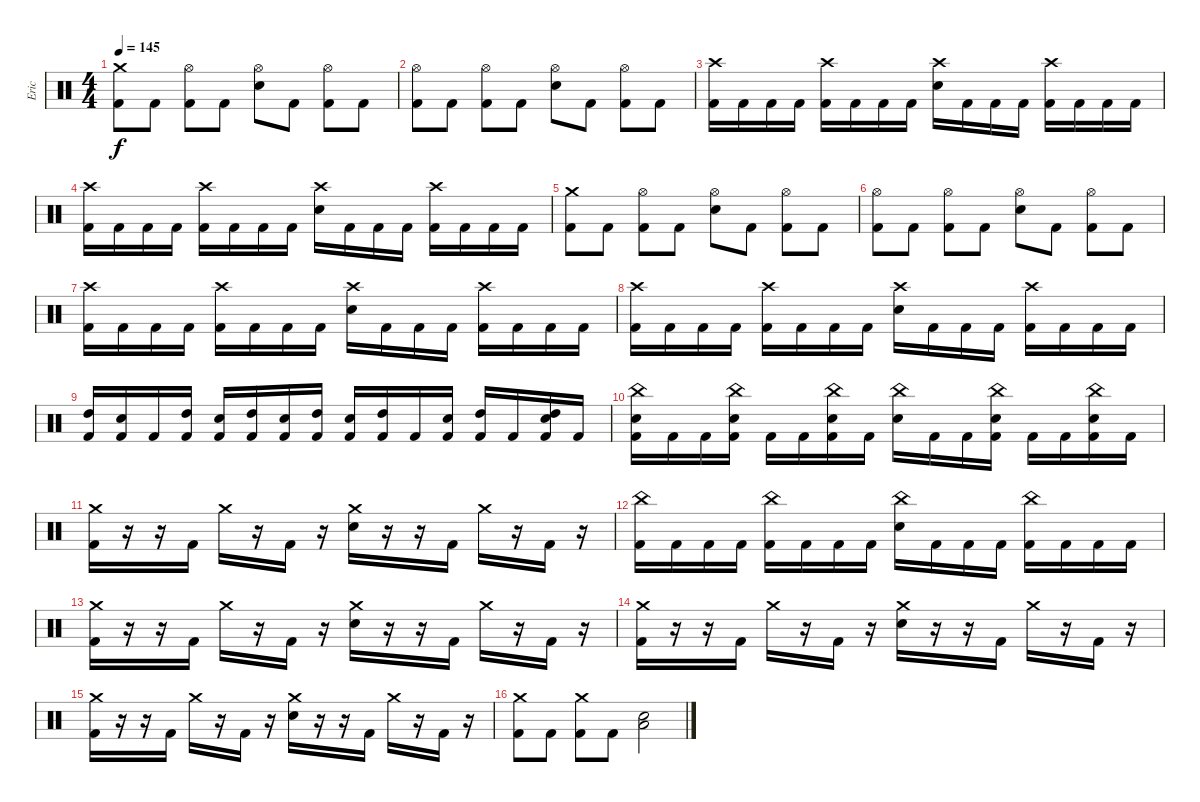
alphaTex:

\track ("Eric" "Eric") {instrument percussion}
\staff {score}
\articulation defaults
\ts (4 4)
\tempo 145
\clef neutral
\ks c
("Crash medium (hit)" "Kick (hit) 2").8{dy f} "Kick (hit) 2".8 ("Hi-Hat (open)" "Kick (hit) 2").8 "Kick (hit) 2".8 ("Hi-Hat (open)" "Electric Snare (hit)").8 "Kick (hit) 2".8 ("Hi-Hat (open)" "Kick (hit) 2").8 "Kick (hit) 2".8 |
("Hi-Hat (open)" "Kick (hit) 2").8 "Kick (hit) 2".8 ("Hi-Hat (open)" "Kick (hit) 2").8 "Kick (hit) 2".8 ("Hi-Hat (open)" "Electric Snare (hit)").8 "Kick (hit) 2".8 ("Hi-Hat (open)" "Kick (hit) 2").8 "Kick (hit) 2".8 |
("Crash high (hit)" "Kick (hit) 2").16 "Kick (hit) 2".16 "Kick (hit) 2".16 "Kick (hit) 2".16 ("Crash high (hit)" "Kick (hit) 2").16 "Kick (hit) 2".16 "Kick (hit) 2".16 "Kick (hit) 2".16 ("Crash high (hit)" "Electric Snare (hit)").16 "Kick (hit) 2".16 "Kick (hit) 2".16 "Kick (hit) 2".16 ("Crash high (hit)" "Kick (hit) 2").16 "Kick (hit) 2".16 "Kick (hit) 2".16 "Kick (hit) 2".16 |
("Crash high (hit)" "Kick (hit) 2").16 "Kick (hit) 2".16 "Kick (hit) 2".16 "Kick (hit) 2".16 ("Crash high (hit)" "Kick (hit) 2").16 "Kick (hit) 2".16 "Kick (hit) 2".16 "Kick (hit) 2".16 ("Crash high (hit)" "Electric Snare (hit)").16 "Kick (hit) 2".16 "Kick (hit) 2".16 "Kick (hit) 2".16 ("Crash high (hit)" "Kick (hit) 2").16 "Kick (hit) 2".16 "Kick (hit) 2".16 "Kick (hit) 2".16 |
("Crash medium (hit)" "Kick (hit) 2").8 "Kick (hit) 2".8 ("Hi-Hat (open)" "Kick (hit) 2").8 "Kick (hit) 2".8 ("Hi-Hat (open)" "Electric Snare (hit)").8 "Kick (hit) 2".8 ("Hi-Hat (open)" "Kick (hit) 2").8 "Kick (hit) 2".8 |
("Hi-Hat (open)" "Kick (hit) 2").8 "Kick (hit) 2".8 ("Hi-Hat (open)" "Kick (hit) 2").8 "Kick (hit) 2".8 ("Hi-Hat (open)" "Electric Snare (hit)").8 "Kick (hit) 2".8 ("Hi-Hat (open)" "Kick (hit) 2").8 "Kick (hit) 2".8 |
("Crash high (hit)" "Kick (hit) 2").16 "Kick (hit) 2".16 "Kick (hit) 2".16 "Kick (hit) 2".16 ("Crash high (hit)" "Kick (hit) 2").16 "Kick (hit) 2".16 "Kick (hit) 2".16 "Kick (hit) 2".16 ("Crash high (hit)" "Electric Snare (hit)").16 "Kick (hit) 2".16 "Kick (hit) 2".16 "Kick (hit) 2".16 ("Crash high (hit)" "Kick (hit) 2").16 "Kick (hit) 2".16 "Kick (hit) 2".16 "Kick (hit) 2".16 |
("Crash high (hit)" "Kick (hit) 2").16 "Kick (hit) 2".16 "Kick (hit) 2".16 "Kick (hit) 2".16 ("Crash high (hit)" "Kick (hit) 2").16 "Kick (hit) 2".16 "Kick (hit) 2".16 "Kick (hit) 2".16 ("Crash high (hit)" "Electric Snare (hit)").16 "Kick (hit) 2".16 "Kick (hit) 2".16 "Kick (hit) 2".16 ("Crash high (hit)" "Kick (hit) 2").16 "Kick (hit) 2".16 "Kick (hit) 2".16 "Kick (hit) 2".16 |
("High Tom (hit)" "Kick (hit) 2").16 ("Electric Snare (hit)" "Kick (hit) 2").16 "Kick (hit) 2".16 ("High Tom (hit)" "Kick (hit) 2").16 ("Electric Snare (hit)" "Kick (hit) 2").16 ("High Tom (hit)" "Kick (hit) 2").16 ("Electric Snare (hit)" "Kick (hit) 2").16 ("High Tom (hit)" "Kick (hit) 2").16 ("Electric Snare (hit)" "Kick (hit) 2").16 ("High Tom (hit)" "Kick (hit) 2").16 "Kick (hit) 2".16 ("Electric Snare (hit)" "Kick (hit) 2").16 ("High Tom (hit)" "Kick (hit) 2").16 "Kick (hit) 2".16 ("High Tom (hit)" "Electric Snare (hit)" "Kick (hit) 2").16 "Kick (hit) 2".16 |
("China (hit)" "Electric Snare (hit)" "Kick (hit) 2").16 "Kick (hit) 2".16 "Kick (hit) 2".16 ("China (hit)" "Electric Snare (hit)" "Kick (hit) 2").16 "Kick (hit) 2".16 "Kick (hit) 2".16 ("China (hit)" "Electric Snare (hit)" "Kick (hit) 2").16 "Kick (hit) 2".16 ("China (hit)" "Electric Snare (hit)").16 "Kick (hit) 2".16 "Kick (hit) 2".16 ("China (hit)" "Electric Snare (hit)" "Kick (hit) 2").16 "Kick (hit) 2".16 "Kick (hit) 2".16 ("China (hit)" "Electric Snare (hit)" "Kick (hit) 2").16 "Kick (hit) 2".16 |
("Crash medium (hit)" "Kick (hit) 2").16 r.16 r.16 "Kick (hit) 2".16 "Crash medium (hit)".16 r.16 "Kick (hit) 2".16 r.16 ("Crash medium (hit)" "Electric Snare (hit)").16 r.16 r.16 "Kick (hit) 2".16 "Crash medium (hit)".16 r.16 "Kick (hit) 2".16 r.16 |
("China (hit)" "Kick (hit) 2").16 "Kick (hit) 2".16 "Kick (hit) 2".16 "Kick (hit) 2".16 ("China (hit)" "Kick (hit) 2").16 "Kick (hit) 2".16 "Kick (hit) 2".16 "Kick (hit) 2".16 ("China (hit)" "Electric Snare (hit)").16 "Kick (hit) 2".16 "Kick (hit) 2".16 "Kick (hit) 2".16 ("China (hit)" "Kick (hit) 2").16 "Kick (hit) 2".16 "Kick (hit) 2".16 "Kick (hit) 2".16 |
("Crash medium (hit)" "Kick (hit) 2").16 r.16 r.16 "Kick (hit) 2".16 "Crash medium (hit)".16 r.16 "Kick (hit) 2".16 r.16 ("Crash medium (hit)" "Electric Snare (hit)").16 r.16 r.16 "Kick (hit) 2".16 "Crash medium (hit)".16 r.16 "Kick (hit) 2".16 r.16 |
("Crash medium (hit)" "Kick (hit) 2").16 r.16 r.16 "Kick (hit) 2".16 "Crash medium (hit)".16 r.16 "Kick (hit) 2".16 r.16 ("Crash medium (hit)" "Electric Snare (hit)").16 r.16 r.16 "Kick (hit) 2".16 "Crash medium (hit)".16 r.16 "Kick (hit) 2".16 r.16 |
("Crash medium (hit)" "Kick (hit) 2").16 r.16 r.16 "Kick (hit) 2".16 "Crash medium (hit)".16 r.16 "Kick (hit) 2".16 r.16 ("Crash medium (hit)" "Electric Snare (hit)").16 r.16 r.16 "Kick (hit) 2".16 "Crash medium (hit)".16 r.16 "Kick (hit) 2".16 r.16 |
("Crash medium (hit)" "Kick (hit) 2").8 "Kick (hit) 2".8 ("Crash medium (hit)" "Kick (hit) 2").8 "Kick (hit) 2".8 ("Low Tom (hit)" "Electric Snare (hit)").2
